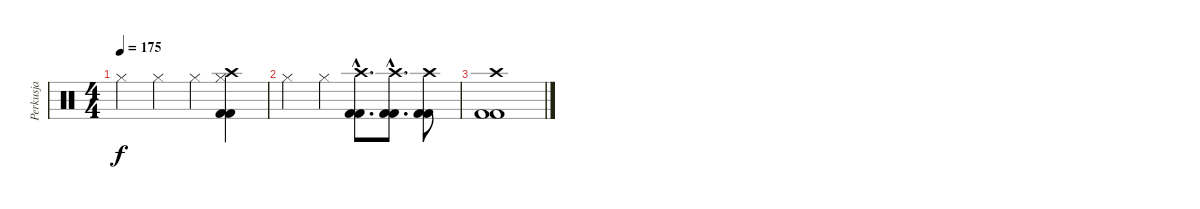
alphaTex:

\track ("Perkusja" "Perkusja") {instrument percussion}
\staff {score}
\articulation defaults
\ts (4 4)
\tempo 175
\clef neutral
\ks c "Hi-Hat (closed)".4{dy f} "Hi-Hat (closed)".4 "Hi-Hat (closed)".4
("Crash high (hit)" "Hi-Hat (closed)" "Kick (hit) 2" "Kick (hit) 2").4 |
"Hi-Hat (closed)".4 "Hi-Hat (closed)".4 ("Crash high (hit)"{hac} "Kick (hit) 2"{hac} "Kick (hit) 2"{hac}).8{d} ("Crash high (hit)"{hac} "Kick (hit) 2"{hac} "Kick (hit) 2"{hac}).8{d} ("Crash high (hit)" "Kick (hit) 2" "Kick (hit) 2").8 |
("Crash high (hit)" "Kick (hit) 2" "Kick (hit) 2").1
